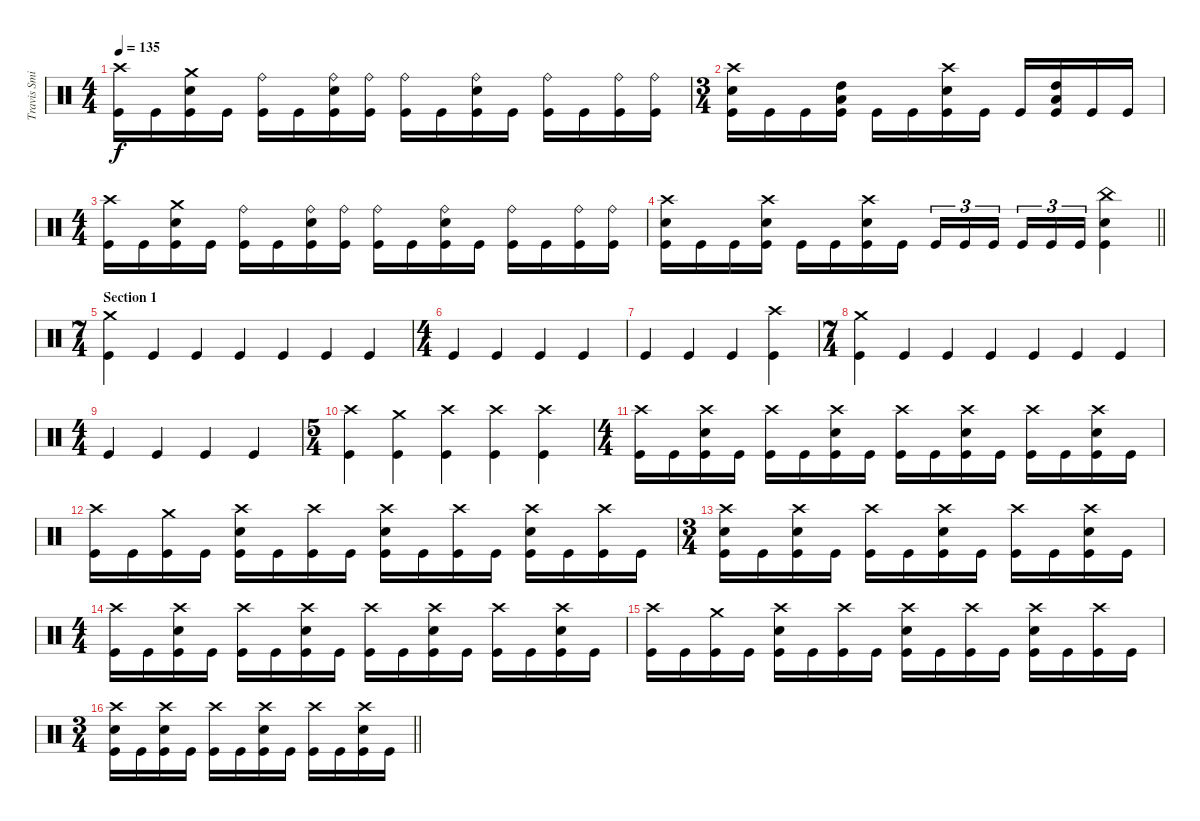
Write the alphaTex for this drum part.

\track ("Travis Smith" "Travis Smi") {instrument percussion}
\staff {score}
\articulation defaults
\ts (4 4)
\tempo 135
\clef neutral
\ks c
("Crash high (hit)" "Kick (hit)").16{dy f} "Kick (hit)".16 ("Crash medium (hit)" "Electric Snare (hit)" "Kick (hit)").16 "Kick (hit)".16 ("Ride (bell)" "Kick (hit)").16 "Kick (hit)".16 ("Ride (bell)" "Electric Snare (hit)" "Kick (hit)").16 ("Ride (bell)" "Kick (hit)").16 ("Ride (bell)" "Kick (hit)").16 "Kick (hit)".16 ("Ride (bell)" "Electric Snare (hit)" "Kick (hit)").16 "Kick (hit)".16 ("Ride (bell)" "Kick (hit)").16 "Kick (hit)".16 ("Ride (bell)" "Kick (hit)").16 ("Ride (bell)" "Kick (hit)").16 |
\ts (3 4)
("Crash high (hit)" "Electric Snare (hit)" "Kick (hit)").16 "Kick (hit)".16 "Kick (hit)".16 ("High Tom (hit)" "Low Tom (hit)" "Kick (hit)").16 "Kick (hit)".16 "Kick (hit)".16 ("Crash high (hit)" "Electric Snare (hit)" "Kick (hit)").16 "Kick (hit)".16 "Kick (hit)".16 ("High Tom (hit)" "Low Tom (hit)" "Kick (hit)").16 "Kick (hit)".16 "Kick (hit)".16 |
\ts (4 4)
("Crash high (hit)" "Kick (hit)").16 "Kick (hit)".16 ("Crash medium (hit)" "Electric Snare (hit)" "Kick (hit)").16 "Kick (hit)".16 ("Ride (bell)" "Kick (hit)").16 "Kick (hit)".16 ("Ride (bell)" "Electric Snare (hit)" "Kick (hit)").16 ("Ride (bell)" "Kick (hit)").16 ("Ride (bell)" "Kick (hit)").16 "Kick (hit)".16 ("Ride (bell)" "Electric Snare (hit)" "Kick (hit)").16 "Kick (hit)".16 ("Ride (bell)" "Kick (hit)").16 "Kick (hit)".16 ("Ride (bell)" "Kick (hit)").16 ("Ride (bell)" "Kick (hit)").16 |
\barLineRight lightlight
("Crash high (hit)" "Electric Snare (hit)" "Kick (hit)").16 "Kick (hit)".16 "Kick (hit)".16 ("Crash high (hit)" "Electric Snare (hit)" "Kick (hit)").16 "Kick (hit)".16 "Kick (hit)".16 ("Crash high (hit)" "Electric Snare (hit)" "Kick (hit)").16 "Kick (hit)".16 "Kick (hit)".16{tu (3 2)} "Kick (hit)".16{tu (3 2)} "Kick (hit)".16{tu (3 2) beam splitsecondary} "Kick (hit)".16{tu (3 2)} "Kick (hit)".16{tu (3 2)} "Kick (hit)".16{tu (3 2)} ("China (hit)" "Electric Snare (hit)" "Kick (hit)").4 |
\ts (7 4)
\section ("" "Section 1")
("Crash medium (hit)" "Kick (hit)").4 "Kick (hit)".4 "Kick (hit)".4 "Kick (hit)".4 "Kick (hit)".4 "Kick (hit)".4 "Kick (hit)".4 |
\ts (4 4)
"Kick (hit)".4 "Kick (hit)".4 "Kick (hit)".4 "Kick (hit)".4 |
"Kick (hit)".4 "Kick (hit)".4 "Kick (hit)".4 ("Crash high (hit)" "Kick (hit)").4 |
\ts (7 4)
("Crash medium (hit)" "Kick (hit)").4 "Kick (hit)".4 "Kick (hit)".4 "Kick (hit)".4 "Kick (hit)".4 "Kick (hit)".4 "Kick (hit)".4 |
\ts (4 4)
"Kick (hit)".4 "Kick (hit)".4 "Kick (hit)".4 "Kick (hit)".4 |
\ts (5 4)
("Crash high (hit)" "Kick (hit)").4 ("Crash medium (hit)" "Kick (hit)").4 ("Crash high (hit)" "Kick (hit)").4 ("Crash high (hit)" "Kick (hit)").4 ("Crash high (hit)" "Kick (hit)").4 |
\ts (4 4)
("Crash high (hit)" "Kick (hit)").16 "Kick (hit)".16 ("Crash high (hit)" "Electric Snare (hit)" "Kick (hit)").16 "Kick (hit)".16 ("Crash high (hit)" "Kick (hit)").16 "Kick (hit)".16 ("Crash high (hit)" "Electric Snare (hit)" "Kick (hit)").16 "Kick (hit)".16 ("Crash high (hit)" "Kick (hit)").16 "Kick (hit)".16 ("Crash high (hit)" "Electric Snare (hit)" "Kick (hit)").16 "Kick (hit)".16 ("Crash high (hit)" "Kick (hit)").16 "Kick (hit)".16 ("Crash high (hit)" "Electric Snare (hit)" "Kick (hit)").16 "Kick (hit)".16 |
("Crash high (hit)" "Kick (hit)").16 "Kick (hit)".16 ("Crash medium (hit)" "Kick (hit)").16 "Kick (hit)".16 ("Crash high (hit)" "Electric Snare (hit)" "Kick (hit)").16 "Kick (hit)".16 ("Crash high (hit)" "Kick (hit)").16 "Kick (hit)".16 ("Crash high (hit)" "Electric Snare (hit)" "Kick (hit)").16 "Kick (hit)".16 ("Crash high (hit)" "Kick (hit)").16 "Kick (hit)".16 ("Crash high (hit)" "Electric Snare (hit)" "Kick (hit)").16 "Kick (hit)".16 ("Crash high (hit)" "Kick (hit)").16 "Kick (hit)".16 |
\ts (3 4)
("Crash high (hit)" "Electric Snare (hit)" "Kick (hit)").16 "Kick (hit)".16 ("Crash high (hit)" "Electric Snare (hit)" "Kick (hit)").16 "Kick (hit)".16 ("Crash high (hit)" "Kick (hit)").16 "Kick (hit)".16 ("Crash high (hit)" "Electric Snare (hit)" "Kick (hit)").16 "Kick (hit)".16 ("Crash high (hit)" "Kick (hit)").16 "Kick (hit)".16 ("Crash high (hit)" "Electric Snare (hit)" "Kick (hit)").16 "Kick (hit)".16 |
\ts (4 4)
("Crash high (hit)" "Kick (hit)").16 "Kick (hit)".16 ("Crash high (hit)" "Electric Snare (hit)" "Kick (hit)").16 "Kick (hit)".16 ("Crash high (hit)" "Kick (hit)").16 "Kick (hit)".16 ("Crash high (hit)" "Electric Snare (hit)" "Kick (hit)").16 "Kick (hit)".16 ("Crash high (hit)" "Kick (hit)").16 "Kick (hit)".16 ("Crash high (hit)" "Electric Snare (hit)" "Kick (hit)").16 "Kick (hit)".16 ("Crash high (hit)" "Kick (hit)").16 "Kick (hit)".16 ("Crash high (hit)" "Electric Snare (hit)" "Kick (hit)").16 "Kick (hit)".16 |
("Crash high (hit)" "Kick (hit)").16 "Kick (hit)".16 ("Crash medium (hit)" "Kick (hit)").16 "Kick (hit)".16 ("Crash high (hit)" "Electric Snare (hit)" "Kick (hit)").16 "Kick (hit)".16 ("Crash high (hit)" "Kick (hit)").16 "Kick (hit)".16 ("Crash high (hit)" "Electric Snare (hit)" "Kick (hit)").16 "Kick (hit)".16 ("Crash high (hit)" "Kick (hit)").16 "Kick (hit)".16 ("Crash high (hit)" "Electric Snare (hit)" "Kick (hit)").16 "Kick (hit)".16 ("Crash high (hit)" "Kick (hit)").16 "Kick (hit)".16 |
\ts (3 4)
\barLineRight lightlight
("Crash high (hit)" "Electric Snare (hit)" "Kick (hit)").16 "Kick (hit)".16 ("Crash high (hit)" "Electric Snare (hit)" "Kick (hit)").16 "Kick (hit)".16 ("Crash high (hit)" "Kick (hit)").16 "Kick (hit)".16 ("Crash high (hit)" "Electric Snare (hit)" "Kick (hit)").16 "Kick (hit)".16 ("Crash high (hit)" "Kick (hit)").16 "Kick (hit)".16 ("Crash high (hit)" "Electric Snare (hit)" "Kick (hit)").16 "Kick (hit)".16
